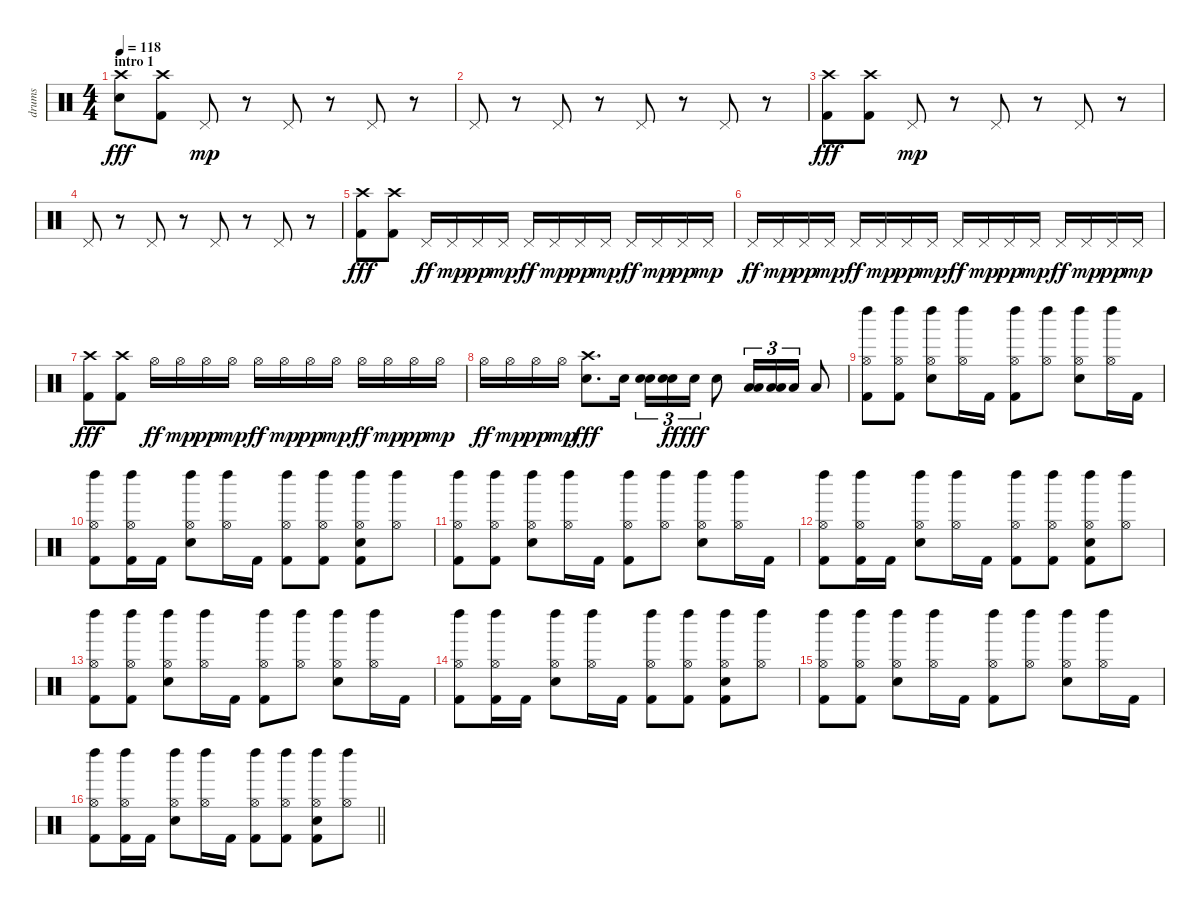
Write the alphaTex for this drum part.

\track ("drums" "drums") {instrument percussion}
\staff {score}
\articulation defaults
\ts (4 4)
\section ("" "intro 1")
\tempo 118
\clef neutral
\ks c
("Snare (hit) 2" "Crash high (hit)").8{dy fff} ("Crash high (hit)" "Kick (hit) 2").8 "Pedal Hi-Hat (hit)".8{dy mp} r.8 "Pedal Hi-Hat (hit)".8 r.8 "Pedal Hi-Hat (hit)".8 r.8 |
"Pedal Hi-Hat (hit)".8 r.8 "Pedal Hi-Hat (hit)".8 r.8 "Pedal Hi-Hat (hit)".8 r.8 "Pedal Hi-Hat (hit)".8 r.8 |
("Kick (hit) 2" "Crash high (hit)").8{dy fff} ("Crash high (hit)" "Kick (hit) 2").8 "Pedal Hi-Hat (hit)".8{dy mp} r.8 "Pedal Hi-Hat (hit)".8 r.8 "Pedal Hi-Hat (hit)".8 r.8 |
"Pedal Hi-Hat (hit)".8 r.8 "Pedal Hi-Hat (hit)".8 r.8 "Pedal Hi-Hat (hit)".8 r.8 "Pedal Hi-Hat (hit)".8 r.8 |
("Kick (hit) 2" "Crash high (hit)").8{dy fff} ("Kick (hit) 2" "Crash high (hit)").8 "Pedal Hi-Hat (hit)".16{dy ff} "Pedal Hi-Hat (hit)".16{dy mp} "Pedal Hi-Hat (hit)".16{dy pp} "Pedal Hi-Hat (hit)".16{dy mp} "Pedal Hi-Hat (hit)".16{dy ff} "Pedal Hi-Hat (hit)".16{dy mp} "Pedal Hi-Hat (hit)".16{dy pp} "Pedal Hi-Hat (hit)".16{dy mp} "Pedal Hi-Hat (hit)".16{dy ff} "Pedal Hi-Hat (hit)".16{dy mp} "Pedal Hi-Hat (hit)".16{dy pp} "Pedal Hi-Hat (hit)".16{dy mp} |
"Pedal Hi-Hat (hit)".16{dy ff} "Pedal Hi-Hat (hit)".16{dy mp} "Pedal Hi-Hat (hit)".16{dy pp} "Pedal Hi-Hat (hit)".16{dy mp} "Pedal Hi-Hat (hit)".16{dy ff} "Pedal Hi-Hat (hit)".16{dy mp} "Pedal Hi-Hat (hit)".16{dy pp} "Pedal Hi-Hat (hit)".16{dy mp} "Pedal Hi-Hat (hit)".16{dy ff} "Pedal Hi-Hat (hit)".16{dy mp} "Pedal Hi-Hat (hit)".16{dy pp} "Pedal Hi-Hat (hit)".16{dy mp} "Pedal Hi-Hat (hit)".16{dy ff} "Pedal Hi-Hat (hit)".16{dy mp} "Pedal Hi-Hat (hit)".16{dy pp} "Pedal Hi-Hat (hit)".16{dy mp} |
("Crash high (hit)" "Kick (hit) 2").8{dy fff} ("Crash high (hit)" "Kick (hit) 2").8 "Hi-Hat (open)".16{dy ff} "Hi-Hat (open)".16{dy mp} "Hi-Hat (open)".16{dy pp} "Hi-Hat (open)".16{dy mp} "Hi-Hat (open)".16{dy ff} "Hi-Hat (open)".16{dy mp} "Hi-Hat (open)".16{dy pp} "Hi-Hat (open)".16{dy mp} "Hi-Hat (open)".16{dy ff} "Hi-Hat (open)".16{dy mp} "Hi-Hat (open)".16{dy pp} "Hi-Hat (open)".16{dy mp} |
"Hi-Hat (open)".16{dy ff} "Hi-Hat (open)".16{dy mp} "Hi-Hat (open)".16{dy pp} "Hi-Hat (open)".16{dy mp} ("Electric Snare (hit)" "Crash high (hit)").8{d dy fff} "Electric Snare (hit)".16 ("Electric Snare (hit)" "Electric Snare (hit)").16{tu (3 2)} ("Electric Snare (hit)" "Electric Snare (hit)").16{tu (3 2) dy ff} "Electric Snare (hit)".16{tu (3 2) dy fff} "Electric Snare (hit)".8 ("Low Tom (hit)" "Low Tom (hit)").16{tu (3 2)} ("Low Tom (hit)" "Low Tom (hit)").16{tu (3 2)} "Low Tom (hit)".16{tu (3 2)} "Low Tom (hit)".8 |
("Hi-Hat (open)" "Left Maraca (hit)" "Kick (hit) 2").8 ("Kick (hit) 2" "Left Maraca (hit)" "Hi-Hat (open)").8 ("Hi-Hat (open)" "Left Maraca (hit)" "Electric Snare (hit)").8 ("Hi-Hat (open)" "Left Maraca (hit)").16 "Kick (hit) 2".16 ("Hi-Hat (open)" "Kick (hit) 2" "Left Maraca (hit)").8 ("Hi-Hat (open)" "Left Maraca (hit)").8 ("Hi-Hat (open)" "Left Maraca (hit)" "Electric Snare (hit)").8 ("Left Maraca (hit)" "Hi-Hat (open)").16 "Kick (hit) 2".16 |
("Left Maraca (hit)" "Hi-Hat (open)" "Kick (hit) 2").8 ("Hi-Hat (open)" "Kick (hit) 2" "Left Maraca (hit)").16 "Kick (hit) 2".16 ("Electric Snare (hit)" "Hi-Hat (open)" "Left Maraca (hit)").8 ("Hi-Hat (open)" "Left Maraca (hit)").16 "Kick (hit) 2".16 ("Kick (hit) 2" "Hi-Hat (open)" "Left Maraca (hit)").8 ("Left Maraca (hit)" "Kick (hit) 2" "Hi-Hat (open)").8 ("Kick (hit) 2" "Hi-Hat (open)" "Electric Snare (hit)" "Left Maraca (hit)").8 ("Hi-Hat (open)" "Left Maraca (hit)").8 |
("Hi-Hat (open)" "Left Maraca (hit)" "Kick (hit) 2").8 ("Kick (hit) 2" "Left Maraca (hit)" "Hi-Hat (open)").8 ("Hi-Hat (open)" "Left Maraca (hit)" "Electric Snare (hit)").8 ("Hi-Hat (open)" "Left Maraca (hit)").16 "Kick (hit) 2".16 ("Hi-Hat (open)" "Kick (hit) 2" "Left Maraca (hit)").8 ("Hi-Hat (open)" "Left Maraca (hit)").8 ("Hi-Hat (open)" "Left Maraca (hit)" "Electric Snare (hit)").8 ("Left Maraca (hit)" "Hi-Hat (open)").16 "Kick (hit) 2".16 |
("Left Maraca (hit)" "Hi-Hat (open)" "Kick (hit) 2").8 ("Hi-Hat (open)" "Kick (hit) 2" "Left Maraca (hit)").16 "Kick (hit) 2".16 ("Electric Snare (hit)" "Hi-Hat (open)" "Left Maraca (hit)").8 ("Hi-Hat (open)" "Left Maraca (hit)").16 "Kick (hit) 2".16 ("Kick (hit) 2" "Hi-Hat (open)" "Left Maraca (hit)").8 ("Left Maraca (hit)" "Kick (hit) 2" "Hi-Hat (open)").8 ("Kick (hit) 2" "Hi-Hat (open)" "Electric Snare (hit)" "Left Maraca (hit)").8 ("Hi-Hat (open)" "Left Maraca (hit)").8 |
("Hi-Hat (open)" "Left Maraca (hit)" "Kick (hit) 2").8 ("Kick (hit) 2" "Left Maraca (hit)" "Hi-Hat (open)").8 ("Hi-Hat (open)" "Left Maraca (hit)" "Electric Snare (hit)").8 ("Hi-Hat (open)" "Left Maraca (hit)").16 "Kick (hit) 2".16 ("Hi-Hat (open)" "Kick (hit) 2" "Left Maraca (hit)").8 ("Hi-Hat (open)" "Left Maraca (hit)").8 ("Hi-Hat (open)" "Left Maraca (hit)" "Electric Snare (hit)").8 ("Left Maraca (hit)" "Hi-Hat (open)").16 "Kick (hit) 2".16 |
("Left Maraca (hit)" "Hi-Hat (open)" "Kick (hit) 2").8 ("Hi-Hat (open)" "Kick (hit) 2" "Left Maraca (hit)").16 "Kick (hit) 2".16 ("Electric Snare (hit)" "Hi-Hat (open)" "Left Maraca (hit)").8 ("Hi-Hat (open)" "Left Maraca (hit)").16 "Kick (hit) 2".16 ("Kick (hit) 2" "Hi-Hat (open)" "Left Maraca (hit)").8 ("Left Maraca (hit)" "Kick (hit) 2" "Hi-Hat (open)").8 ("Kick (hit) 2" "Hi-Hat (open)" "Electric Snare (hit)" "Left Maraca (hit)").8 ("Hi-Hat (open)" "Left Maraca (hit)").8 |
("Hi-Hat (open)" "Left Maraca (hit)" "Kick (hit) 2").8 ("Kick (hit) 2" "Left Maraca (hit)" "Hi-Hat (open)").8 ("Hi-Hat (open)" "Left Maraca (hit)" "Electric Snare (hit)").8 ("Hi-Hat (open)" "Left Maraca (hit)").16 "Kick (hit) 2".16 ("Hi-Hat (open)" "Kick (hit) 2" "Left Maraca (hit)").8 ("Hi-Hat (open)" "Left Maraca (hit)").8 ("Hi-Hat (open)" "Left Maraca (hit)" "Electric Snare (hit)").8 ("Left Maraca (hit)" "Hi-Hat (open)").16 "Kick (hit) 2".16 |
\barLineRight lightlight
("Left Maraca (hit)" "Hi-Hat (open)" "Kick (hit) 2").8 ("Hi-Hat (open)" "Kick (hit) 2" "Left Maraca (hit)").16 "Kick (hit) 2".16 ("Electric Snare (hit)" "Hi-Hat (open)" "Left Maraca (hit)").8 ("Hi-Hat (open)" "Left Maraca (hit)").16 "Kick (hit) 2".16 ("Kick (hit) 2" "Hi-Hat (open)" "Left Maraca (hit)").8 ("Left Maraca (hit)" "Kick (hit) 2" "Hi-Hat (open)").8 ("Kick (hit) 2" "Hi-Hat (open)" "Electric Snare (hit)" "Left Maraca (hit)").8 ("Hi-Hat (open)" "Left Maraca (hit)").8
